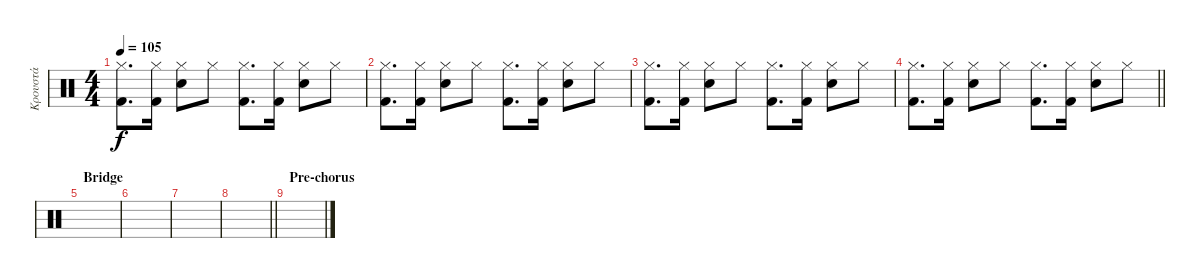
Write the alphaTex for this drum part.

\track ("Κρουστά" "Κρουστά") {instrument percussion}
\staff {score}
\articulation defaults
\ts (4 4)
\tempo 105
\clef neutral
\ks c
("Hi-Hat (closed)" "Kick (hit) 2").8{d dy f} ("Hi-Hat (closed)" "Kick (hit) 2").16 ("Hi-Hat (closed)" "Electric Snare (hit)").8 "Hi-Hat (closed)".8 ("Hi-Hat (closed)" "Kick (hit) 2").8{d} ("Hi-Hat (closed)" "Kick (hit) 2").16 ("Hi-Hat (closed)" "Electric Snare (hit)").8 "Hi-Hat (closed)".8 |
("Hi-Hat (closed)" "Kick (hit) 2").8{d} ("Hi-Hat (closed)" "Kick (hit) 2").16 ("Hi-Hat (closed)" "Electric Snare (hit)").8 "Hi-Hat (closed)".8 ("Hi-Hat (closed)" "Kick (hit) 2").8{d} ("Hi-Hat (closed)" "Kick (hit) 2").16 ("Hi-Hat (closed)" "Electric Snare (hit)").8 "Hi-Hat (closed)".8 |
("Hi-Hat (closed)" "Kick (hit) 2").8{d} ("Hi-Hat (closed)" "Kick (hit) 2").16 ("Hi-Hat (closed)" "Electric Snare (hit)").8 "Hi-Hat (closed)".8 ("Hi-Hat (closed)" "Kick (hit) 2").8{d} ("Hi-Hat (closed)" "Kick (hit) 2").16 ("Hi-Hat (closed)" "Electric Snare (hit)").8 "Hi-Hat (closed)".8 |
\barLineRight lightlight
("Hi-Hat (closed)" "Kick (hit) 2").8{d} ("Hi-Hat (closed)" "Kick (hit) 2").16 ("Hi-Hat (closed)" "Electric Snare (hit)").8 "Hi-Hat (closed)".8 ("Hi-Hat (closed)" "Kick (hit) 2").8{d} ("Hi-Hat (closed)" "Kick (hit) 2").16 ("Hi-Hat (closed)" "Electric Snare (hit)").8 "Hi-Hat (closed)".8 |
\section ("" "Bridge")
|
|
|
\barLineRight lightlight
|
\section ("" "Pre-chorus")
